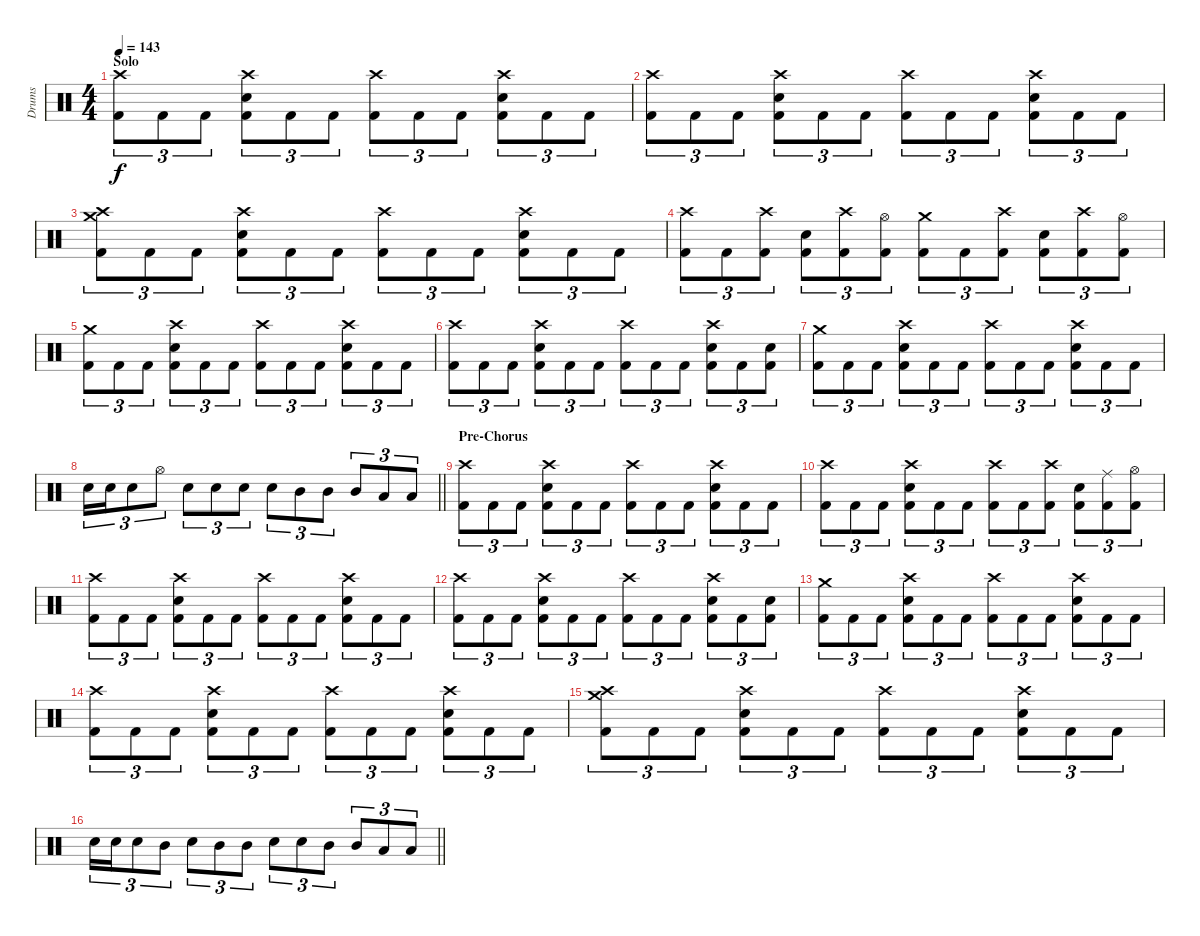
\track ("Drums" "Drums") {instrument percussion}
\staff {score}
\articulation defaults
\ts (4 4)
\section ("" "Solo")
\tempo 143
\clef neutral
\ks c
("Crash high (hit)" "Kick (hit) 2").8{tu (3 2) dy f} "Kick (hit) 2".8{tu (3 2)} "Kick (hit) 2".8{tu (3 2)} ("Crash high (hit)" "Snare (hit) 2" "Kick (hit) 2").8{tu (3 2)} "Kick (hit) 2".8{tu (3 2)} "Kick (hit) 2".8{tu (3 2)} ("Crash high (hit)" "Kick (hit) 2").8{tu (3 2)} "Kick (hit) 2".8{tu (3 2)} "Kick (hit) 2".8{tu (3 2)} ("Crash high (hit)" "Snare (hit) 2" "Kick (hit) 2").8{tu (3 2)} "Kick (hit) 2".8{tu (3 2)} "Kick (hit) 2".8{tu (3 2)} |
("Crash high (hit)" "Kick (hit) 2").8{tu (3 2)} "Kick (hit) 2".8{tu (3 2)} "Kick (hit) 2".8{tu (3 2)} ("Crash high (hit)" "Snare (hit) 2" "Kick (hit) 2").8{tu (3 2)} "Kick (hit) 2".8{tu (3 2)} "Kick (hit) 2".8{tu (3 2)} ("Crash high (hit)" "Kick (hit) 2").8{tu (3 2)} "Kick (hit) 2".8{tu (3 2)} "Kick (hit) 2".8{tu (3 2)} ("Crash high (hit)" "Snare (hit) 2" "Kick (hit) 2").8{tu (3 2)} "Kick (hit) 2".8{tu (3 2)} "Kick (hit) 2".8{tu (3 2)} |
("Crash medium (hit)" "Crash high (hit)" "Kick (hit) 2").8{tu (3 2)} "Kick (hit) 2".8{tu (3 2)} "Kick (hit) 2".8{tu (3 2)} ("Crash high (hit)" "Snare (hit) 2" "Kick (hit) 2").8{tu (3 2)} "Kick (hit) 2".8{tu (3 2)} "Kick (hit) 2".8{tu (3 2)} ("Crash high (hit)" "Kick (hit) 2").8{tu (3 2)} "Kick (hit) 2".8{tu (3 2)} "Kick (hit) 2".8{tu (3 2)} ("Crash high (hit)" "Snare (hit) 2" "Kick (hit) 2").8{tu (3 2)} "Kick (hit) 2".8{tu (3 2)} "Kick (hit) 2".8{tu (3 2)} |
("Crash high (hit)" "Kick (hit) 2").8{tu (3 2)} "Kick (hit) 2".8{tu (3 2)} ("Crash high (hit)" "Kick (hit) 2").8{tu (3 2)} ("Snare (hit) 2" "Kick (hit) 2").8{tu (3 2)} ("Crash high (hit)" "Kick (hit) 2").8{tu (3 2)} ("Hi-Hat (open)" "Kick (hit) 2").8{tu (3 2)} ("Crash medium (hit)" "Kick (hit) 2").8{tu (3 2)} "Kick (hit) 2".8{tu (3 2)} ("Crash high (hit)" "Kick (hit) 2").8{tu (3 2)} ("Snare (hit) 2" "Kick (hit) 2").8{tu (3 2)} ("Crash high (hit)" "Kick (hit) 2").8{tu (3 2)} ("Hi-Hat (open)" "Kick (hit) 2").8{tu (3 2)} |
("Crash medium (hit)" "Kick (hit) 2").8{tu (3 2)} "Kick (hit) 2".8{tu (3 2)} "Kick (hit) 2".8{tu (3 2)} ("Crash high (hit)" "Snare (hit) 2" "Kick (hit) 2").8{tu (3 2)} "Kick (hit) 2".8{tu (3 2)} "Kick (hit) 2".8{tu (3 2)} ("Crash high (hit)" "Kick (hit) 2").8{tu (3 2)} "Kick (hit) 2".8{tu (3 2)} "Kick (hit) 2".8{tu (3 2)} ("Crash high (hit)" "Snare (hit) 2" "Kick (hit) 2").8{tu (3 2)} "Kick (hit) 2".8{tu (3 2)} "Kick (hit) 2".8{tu (3 2)} |
("Crash high (hit)" "Kick (hit) 2").8{tu (3 2)} "Kick (hit) 2".8{tu (3 2)} "Kick (hit) 2".8{tu (3 2)} ("Crash high (hit)" "Snare (hit) 2" "Kick (hit) 2").8{tu (3 2)} "Kick (hit) 2".8{tu (3 2)} "Kick (hit) 2".8{tu (3 2)} ("Crash high (hit)" "Kick (hit) 2").8{tu (3 2)} "Kick (hit) 2".8{tu (3 2)} "Kick (hit) 2".8{tu (3 2)} ("Crash high (hit)" "Snare (hit) 2" "Kick (hit) 2").8{tu (3 2)} "Kick (hit) 2".8{tu (3 2)} ("Snare (hit) 2" "Kick (hit) 2").8{tu (3 2)} |
("Crash medium (hit)" "Kick (hit) 2").8{tu (3 2)} "Kick (hit) 2".8{tu (3 2)} "Kick (hit) 2".8{tu (3 2)} ("Crash high (hit)" "Snare (hit) 2" "Kick (hit) 2").8{tu (3 2)} "Kick (hit) 2".8{tu (3 2)} "Kick (hit) 2".8{tu (3 2)} ("Crash high (hit)" "Kick (hit) 2").8{tu (3 2)} "Kick (hit) 2".8{tu (3 2)} "Kick (hit) 2".8{tu (3 2)} ("Crash high (hit)" "Snare (hit) 2" "Kick (hit) 2").8{tu (3 2)} "Kick (hit) 2".8{tu (3 2)} "Kick (hit) 2".8{tu (3 2)} |
\barLineRight lightlight "Snare (hit) 2".16{tu (3 2)} "Snare (hit) 2".16{tu (3 2)} "Snare (hit) 2".8{tu (3 2)} "Hi-Hat (open)".8{tu (3 2)} "Snare (hit) 2".8{tu (3 2)} "Snare (hit) 2".8{tu (3 2)} "Snare (hit) 2".8{tu (3 2)} "Snare (hit) 2".8{tu (3 2)} "Mid Tom (hit)".8{tu (3 2)} "Mid Tom (hit)".8{tu (3 2)} "Mid Tom (hit)".8{tu (3 2)} "Low Tom (hit)".8{tu (3 2)} "Low Tom (hit)".8{tu (3 2)}
|
\section ("" "Pre-Chorus")
("Crash high (hit)" "Kick (hit) 2").8{tu (3 2)} "Kick (hit) 2".8{tu (3 2)} "Kick (hit) 2".8{tu (3 2)} ("Crash high (hit)" "Snare (hit) 2" "Kick (hit) 2").8{tu (3 2)} "Kick (hit) 2".8{tu (3 2)} "Kick (hit) 2".8{tu (3 2)} ("Crash high (hit)" "Kick (hit) 2").8{tu (3 2)} "Kick (hit) 2".8{tu (3 2)} "Kick (hit) 2".8{tu (3 2)} ("Crash high (hit)" "Snare (hit) 2" "Kick (hit) 2").8{tu (3 2)} "Kick (hit) 2".8{tu (3 2)} "Kick (hit) 2".8{tu (3 2)} |
("Crash high (hit)" "Kick (hit) 2").8{tu (3 2)} "Kick (hit) 2".8{tu (3 2)} "Kick (hit) 2".8{tu (3 2)} ("Crash high (hit)" "Snare (hit) 2" "Kick (hit) 2").8{tu (3 2)} "Kick (hit) 2".8{tu (3 2)} "Kick (hit) 2".8{tu (3 2)} ("Crash high (hit)" "Kick (hit) 2").8{tu (3 2)} "Kick (hit) 2".8{tu (3 2)} ("Crash high (hit)" "Kick (hit) 2").8{tu (3 2)} ("Snare (hit) 2" "Kick (hit) 2").8{tu (3 2)} ("Ride (middle)" "Kick (hit) 2").8{tu (3 2)} ("Hi-Hat (open)" "Kick (hit) 2").8{tu (3 2)} |
("Crash high (hit)" "Kick (hit) 2").8{tu (3 2)} "Kick (hit) 2".8{tu (3 2)} "Kick (hit) 2".8{tu (3 2)} ("Crash high (hit)" "Snare (hit) 2" "Kick (hit) 2").8{tu (3 2)} "Kick (hit) 2".8{tu (3 2)} "Kick (hit) 2".8{tu (3 2)} ("Crash high (hit)" "Kick (hit) 2").8{tu (3 2)} "Kick (hit) 2".8{tu (3 2)} "Kick (hit) 2".8{tu (3 2)} ("Crash high (hit)" "Snare (hit) 2" "Kick (hit) 2").8{tu (3 2)} "Kick (hit) 2".8{tu (3 2)} "Kick (hit) 2".8{tu (3 2)} |
("Crash high (hit)" "Kick (hit) 2").8{tu (3 2)} "Kick (hit) 2".8{tu (3 2)} "Kick (hit) 2".8{tu (3 2)} ("Crash high (hit)" "Snare (hit) 2" "Kick (hit) 2").8{tu (3 2)} "Kick (hit) 2".8{tu (3 2)} "Kick (hit) 2".8{tu (3 2)} ("Crash high (hit)" "Kick (hit) 2").8{tu (3 2)} "Kick (hit) 2".8{tu (3 2)} "Kick (hit) 2".8{tu (3 2)} ("Crash high (hit)" "Snare (hit) 2" "Kick (hit) 2").8{tu (3 2)} "Kick (hit) 2".8{tu (3 2)} ("Snare (hit) 2" "Kick (hit) 2").8{tu (3 2)} |
("Crash medium (hit)" "Kick (hit) 2").8{tu (3 2)} "Kick (hit) 2".8{tu (3 2)} "Kick (hit) 2".8{tu (3 2)} ("Crash high (hit)" "Snare (hit) 2" "Kick (hit) 2").8{tu (3 2)} "Kick (hit) 2".8{tu (3 2)} "Kick (hit) 2".8{tu (3 2)} ("Crash high (hit)" "Kick (hit) 2").8{tu (3 2)} "Kick (hit) 2".8{tu (3 2)} "Kick (hit) 2".8{tu (3 2)} ("Crash high (hit)" "Snare (hit) 2" "Kick (hit) 2").8{tu (3 2)} "Kick (hit) 2".8{tu (3 2)} "Kick (hit) 2".8{tu (3 2)} |
("Crash high (hit)" "Kick (hit) 2").8{tu (3 2)} "Kick (hit) 2".8{tu (3 2)} "Kick (hit) 2".8{tu (3 2)} ("Crash high (hit)" "Snare (hit) 2" "Kick (hit) 2").8{tu (3 2)} "Kick (hit) 2".8{tu (3 2)} "Kick (hit) 2".8{tu (3 2)} ("Crash high (hit)" "Kick (hit) 2").8{tu (3 2)} "Kick (hit) 2".8{tu (3 2)} "Kick (hit) 2".8{tu (3 2)} ("Crash high (hit)" "Snare (hit) 2" "Kick (hit) 2").8{tu (3 2)} "Kick (hit) 2".8{tu (3 2)} "Kick (hit) 2".8{tu (3 2)} |
("Crash medium (hit)" "Crash high (hit)" "Kick (hit) 2").8{tu (3 2)} "Kick (hit) 2".8{tu (3 2)} "Kick (hit) 2".8{tu (3 2)} ("Crash high (hit)" "Snare (hit) 2" "Kick (hit) 2").8{tu (3 2)} "Kick (hit) 2".8{tu (3 2)} "Kick (hit) 2".8{tu (3 2)} ("Crash high (hit)" "Kick (hit) 2").8{tu (3 2)} "Kick (hit) 2".8{tu (3 2)} "Kick (hit) 2".8{tu (3 2)} ("Crash high (hit)" "Snare (hit) 2" "Kick (hit) 2").8{tu (3 2)} "Kick (hit) 2".8{tu (3 2)} "Kick (hit) 2".8{tu (3 2)} |
\barLineRight lightlight "Snare (hit) 2".16{tu (3 2)} "Snare (hit) 2".16{tu (3 2)} "Snare (hit) 2".8{tu (3 2)} "Mid Tom (hit)".8{tu (3 2)} "Snare (hit) 2".8{tu (3 2)} "Mid Tom (hit)".8{tu (3 2)} "Mid Tom (hit)".8{tu (3 2)} "Snare (hit) 2".8{tu (3 2)} "Snare (hit) 2".8{tu (3 2)} "Mid Tom (hit)".8{tu (3 2)} "Mid Tom (hit)".8{tu (3 2)} "Low Tom (hit)".8{tu (3 2)} "Low Tom (hit)".8{tu (3 2)}
